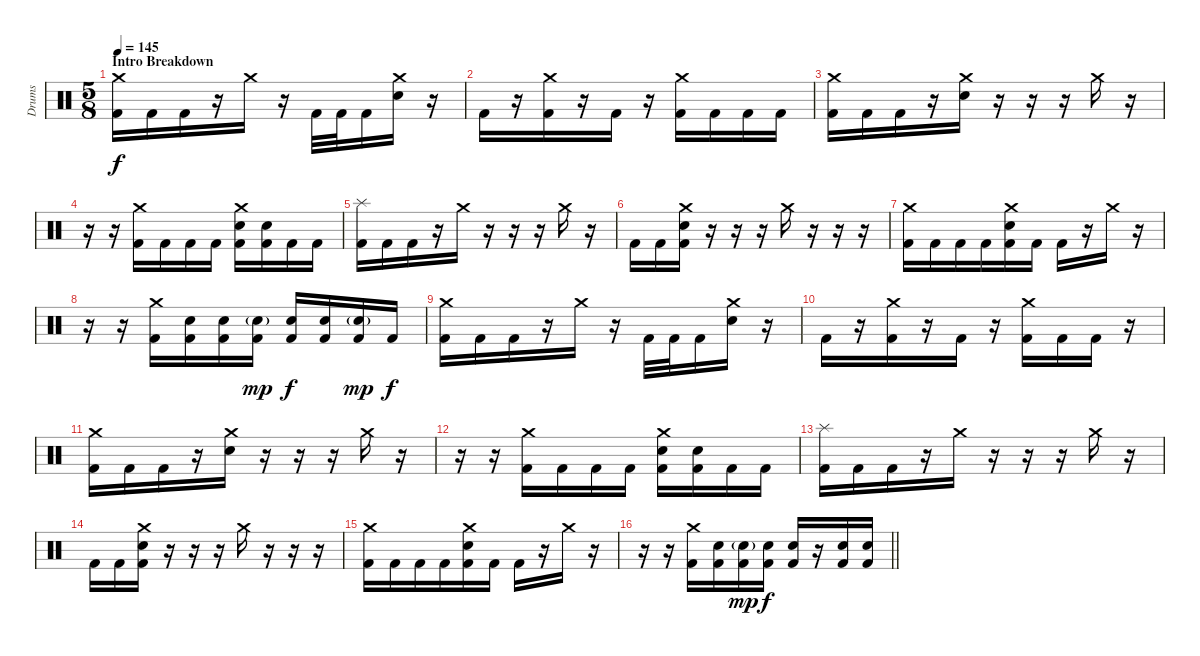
\track ("Drums" "Drums") {instrument percussion}
\staff {score}
\articulation defaults
\ts (5 8)
\section ("" "Intro Breakdown")
\tempo 145
\clef neutral
\ks c
("Crash medium (hit)" "Kick (hit) 2").16{dy f volume 16 balance 8} "Kick (hit) 2".16 "Kick (hit) 2".16 r.16 "Crash medium (hit)".16 r.16 "Kick (hit) 2".32 "Kick (hit) 2".32 "Kick (hit) 2".16 ("Crash medium (hit)" "Snare (hit) 2").16 r.16 |
"Kick (hit) 2".16 r.16 ("Crash medium (hit)" "Kick (hit) 2").16 r.16 "Kick (hit) 2".16 r.16 ("Crash medium (hit)" "Kick (hit) 2").16 "Kick (hit) 2".16 "Kick (hit) 2".16 "Kick (hit) 2".16 |
("Crash medium (hit)" "Kick (hit) 2").16 "Kick (hit) 2".16 "Kick (hit) 2".16 r.16 ("Crash medium (hit)" "Snare (hit) 2").16 r.16 r.16 r.16 "Crash medium (hit)".16 r.16 |
r.16 r.16 ("Crash medium (hit)" "Kick (hit) 2").16 "Kick (hit) 2".16 "Kick (hit) 2".16 "Kick (hit) 2".16 ("Crash medium (hit)" "Snare (hit) 2" "Kick (hit) 2").16 ("Snare (hit) 2" "Kick (hit) 2").16 "Kick (hit) 2".16 "Kick (hit) 2".16 |
("Splash (hit)" "Kick (hit) 2").16 "Kick (hit) 2".16 "Kick (hit) 2".16 r.16 "Crash medium (hit)".16 r.16 r.16 r.16 "Crash medium (hit)".16 r.16 |
"Kick (hit) 2".16 "Kick (hit) 2".16 ("Crash medium (hit)" "Snare (hit) 2" "Kick (hit) 2").16 r.16 r.16 r.16 "Crash medium (hit)".16 r.16 r.16 r.16 |
("Crash medium (hit)" "Kick (hit) 2").16 "Kick (hit) 2".16 "Kick (hit) 2".16 "Kick (hit) 2".16 ("Crash medium (hit)" "Snare (hit) 2" "Kick (hit) 2").16 "Kick (hit) 2".16 "Kick (hit) 2".16 r.16 "Crash medium (hit)".16 r.16 |
r.16 r.16 ("Crash medium (hit)" "Kick (hit) 2").16 ("Snare (hit) 2" "Kick (hit) 2").16 ("Snare (hit) 2" "Kick (hit) 2").16 ("Snare (hit) 2"{g} "Kick (hit) 2").16{dy mp} ("Snare (hit) 2" "Kick (hit) 2").16{dy f} ("Snare (hit) 2" "Kick (hit) 2").16 ("Snare (hit) 2"{g} "Kick (hit) 2").16{dy mp} "Kick (hit) 2".16{dy f} |
("Crash medium (hit)" "Kick (hit) 2").16 "Kick (hit) 2".16 "Kick (hit) 2".16 r.16 "Crash medium (hit)".16 r.16 "Kick (hit) 2".32 "Kick (hit) 2".32 "Kick (hit) 2".16 ("Crash medium (hit)" "Snare (hit) 2").16 r.16 |
"Kick (hit) 2".16 r.16 ("Crash medium (hit)" "Kick (hit) 2").16 r.16 "Kick (hit) 2".16 r.16 ("Crash medium (hit)" "Kick (hit) 2").16 "Kick (hit) 2".16 "Kick (hit) 2".16 r.16 |
("Crash medium (hit)" "Kick (hit) 2").16 "Kick (hit) 2".16 "Kick (hit) 2".16 r.16 ("Crash medium (hit)" "Snare (hit) 2").16 r.16 r.16 r.16 "Crash medium (hit)".16 r.16 |
r.16 r.16 ("Crash medium (hit)" "Kick (hit) 2").16 "Kick (hit) 2".16 "Kick (hit) 2".16 "Kick (hit) 2".16 ("Crash medium (hit)" "Snare (hit) 2" "Kick (hit) 2").16 ("Snare (hit) 2" "Kick (hit) 2").16 "Kick (hit) 2".16 "Kick (hit) 2".16 |
("Splash (hit)" "Kick (hit) 2").16 "Kick (hit) 2".16 "Kick (hit) 2".16 r.16 "Crash medium (hit)".16 r.16 r.16 r.16 "Crash medium (hit)".16 r.16 |
"Kick (hit) 2".16 "Kick (hit) 2".16 ("Crash medium (hit)" "Snare (hit) 2" "Kick (hit) 2").16 r.16 r.16 r.16 "Crash medium (hit)".16 r.16 r.16 r.16 |
("Crash medium (hit)" "Kick (hit) 2").16 "Kick (hit) 2".16 "Kick (hit) 2".16 "Kick (hit) 2".16 ("Crash medium (hit)" "Snare (hit) 2" "Kick (hit) 2").16 "Kick (hit) 2".16 "Kick (hit) 2".16 r.16 "Crash medium (hit)".16 r.16 |
\barLineRight lightlight
r.16 r.16 ("Crash medium (hit)" "Kick (hit) 2").16 ("Snare (hit) 2" "Kick (hit) 2").16 ("Snare (hit) 2"{g} "Kick (hit) 2").16{dy mp} ("Snare (hit) 2" "Kick (hit) 2").16{dy f} ("Snare (hit) 2" "Kick (hit) 2").16 r.16 ("Snare (hit) 2" "Kick (hit) 2").16 ("Snare (hit) 2" "Kick (hit) 2").16
